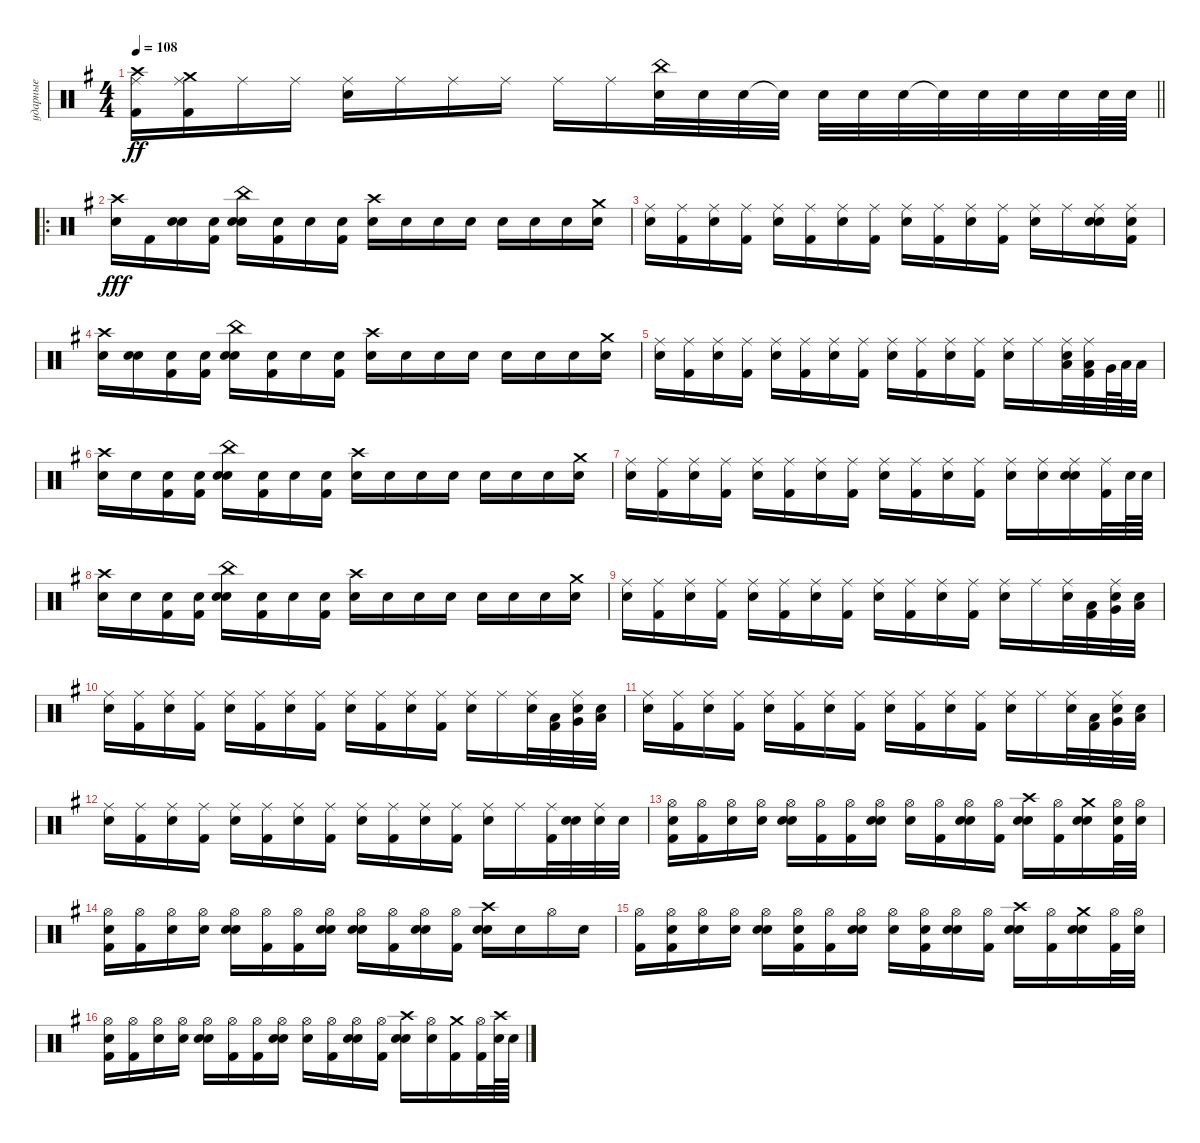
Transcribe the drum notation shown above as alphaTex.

\track ("ударные" "ударные") {instrument percussion}
\staff {score}
\articulation defaults
\ts (4 4)
\tempo 108
\clef neutral
\barLineRight lightlight
\ks eminor
("Crash high (hit)" "Ride (middle)" "Kick (hit) 2").16{dy ff} ("Crash medium (hit)" "Ride (middle)" "Kick (hit) 2").16 "Ride (middle)".16 "Ride (middle)".16 ("Ride (middle)" "Snare (hit) 2").16 "Ride (middle)".16 "Ride (middle)".16 "Ride (middle)".16 "Ride (middle)".16 "Ride (middle)".16 ("China (hit)" "Snare (hit) 2").32 "Snare (hit) 2".32 "Snare (hit) 2".32 "Snare (hit) 2"{t}.32 "Snare (hit) 2".32 "Snare (hit) 2".32 "Snare (hit) 2".32 "Snare (hit) 2"{t}.32 "Snare (hit) 2".32 "Snare (hit) 2".32 "Snare (hit) 2".32 "Snare (hit) 2".64 "Snare (hit) 2".64 |
\ro
("Crash high (hit)" "Snare (hit) 2").16{dy fff} "Kick (hit) 2".16 ("Snare (hit)" "Snare (hit)").16 ("Snare (hit)" "Kick (hit) 2").16 ("China (hit)" "Snare (hit) 2" "Snare (hit)").16 ("Snare (hit)" "Kick (hit) 2").16 "Snare (hit)".16 ("Snare (hit)" "Kick (hit) 2").16 ("Crash high (hit)" "Snare (hit) 2").16 "Snare (hit)".16 "Snare (hit) 2".16 "Snare (hit)".16 "Snare (hit) 2".16 "Snare (hit)".16 "Snare (hit) 2".16 ("Crash medium (hit)" "Snare (hit) 2").16 |
("Ride (middle)" "Snare (hit) 2").16 ("Ride (middle)" "Kick (hit) 2").16 ("Ride (middle)" "Snare (hit)").16 ("Ride (middle)" "Kick (hit) 2").16 ("Ride (middle)" "Snare (hit) 2").16 ("Ride (middle)" "Kick (hit) 2").16 ("Ride (middle)" "Snare (hit)").16 ("Ride (middle)" "Kick (hit) 2").16 ("Ride (middle)" "Snare (hit) 2").16 ("Ride (middle)" "Kick (hit) 2").16 ("Ride (middle)" "Snare (hit)").16 ("Ride (middle)" "Kick (hit) 2").16 ("Ride (middle)" "Snare (hit) 2").16 "Ride (middle)".16 ("Ride (middle)" "Snare (hit) 2" "Snare (hit)").16 ("Ride (middle)" "Snare (hit) 2" "Kick (hit) 2").16 |
("Crash high (hit)" "Snare (hit) 2").16 ("Snare (hit) 2" "Snare (hit)").16 ("Snare (hit)" "Kick (hit) 2").16 ("Snare (hit)" "Kick (hit) 2").16 ("China (hit)" "Snare (hit) 2" "Snare (hit)").16 ("Snare (hit)" "Kick (hit) 2").16 "Snare (hit)".16 ("Snare (hit)" "Kick (hit) 2").16 ("Crash high (hit)" "Snare (hit) 2").16 "Snare (hit)".16 "Snare (hit) 2".16 "Snare (hit)".16 "Snare (hit) 2".16 "Snare (hit) 2".16 "Snare (hit)".16 ("Crash medium (hit)" "Snare (hit) 2").16 |
("Ride (middle)" "Snare (hit) 2").16 ("Ride (middle)" "Kick (hit) 2").16 ("Ride (middle)" "Snare (hit)").16 ("Ride (middle)" "Kick (hit) 2").16 ("Ride (middle)" "Snare (hit) 2").16 ("Ride (middle)" "Kick (hit) 2").16 ("Ride (middle)" "Snare (hit)").16 ("Ride (middle)" "Kick (hit) 2").16 ("Ride (middle)" "Snare (hit) 2").16 ("Ride (middle)" "Kick (hit) 2").16 ("Ride (middle)" "Snare (hit)").16 ("Ride (middle)" "Kick (hit) 2").16 ("Ride (middle)" "Snare (hit) 2").16 "Ride (middle)".16 ("Low Tom (hit)" "Ride (middle)" "Snare (hit)").32 ("Low Tom (hit)" "Ride (middle)" "Kick (hit) 2").32 "Very Low Tom (hit)".64 "Low Floor Tom (hit)".64 "Low Floor Tom (hit)".32 |
("Crash high (hit)" "Snare (hit) 2").16 "Snare (hit) 2".16 ("Snare (hit)" "Kick (hit) 2").16 ("Snare (hit)" "Kick (hit) 2").16 ("China (hit)" "Snare (hit) 2" "Snare (hit)").16 ("Snare (hit)" "Kick (hit) 2").16 "Snare (hit)".16 ("Snare (hit)" "Kick (hit) 2").16 ("Crash high (hit)" "Snare (hit) 2").16 "Snare (hit)".16 "Snare (hit) 2".16 "Snare (hit)".16 "Snare (hit) 2".16 "Snare (hit) 2".16 "Snare (hit)".16 ("Crash medium (hit)" "Snare (hit) 2").16 |
("Ride (middle)" "Snare (hit) 2").16 ("Ride (middle)" "Kick (hit) 2").16 ("Ride (middle)" "Snare (hit)").16 ("Ride (middle)" "Kick (hit) 2").16 ("Ride (middle)" "Snare (hit) 2").16 ("Ride (middle)" "Kick (hit) 2").16 ("Ride (middle)" "Snare (hit)").16 ("Ride (middle)" "Kick (hit) 2").16 ("Ride (middle)" "Snare (hit) 2").16 ("Ride (middle)" "Kick (hit) 2").16 ("Ride (middle)" "Snare (hit)").16 ("Ride (middle)" "Kick (hit) 2").16 ("Ride (middle)" "Snare (hit) 2").16 ("Ride (middle)" "Snare (hit)").16 ("Ride (middle)" "Snare (hit)" "Snare (hit)").16 ("Ride (middle)" "Kick (hit) 2").32 "Snare (hit) 2".64 "Snare (hit) 2".64 |
("Crash high (hit)" "Snare (hit) 2").16 "Snare (hit) 2".16 ("Snare (hit)" "Kick (hit) 2").16 ("Snare (hit)" "Kick (hit) 2").16 ("China (hit)" "Snare (hit) 2" "Snare (hit)").16 ("Snare (hit)" "Kick (hit) 2").16 "Snare (hit)".16 ("Snare (hit)" "Kick (hit) 2").16 ("Crash high (hit)" "Snare (hit) 2").16 "Snare (hit)".16 "Snare (hit) 2".16 "Snare (hit)".16 "Snare (hit) 2".16 "Snare (hit) 2".16 "Snare (hit)".16 ("Crash medium (hit)" "Snare (hit) 2").16 |
("Ride (middle)" "Snare (hit) 2").16 ("Ride (middle)" "Kick (hit) 2").16 ("Ride (middle)" "Snare (hit)").16 ("Ride (middle)" "Kick (hit) 2").16 ("Ride (middle)" "Snare (hit) 2").16 ("Ride (middle)" "Kick (hit) 2").16 ("Ride (middle)" "Snare (hit)").16 ("Ride (middle)" "Kick (hit) 2").16 ("Ride (middle)" "Snare (hit) 2").16 ("Ride (middle)" "Kick (hit) 2").16 ("Ride (middle)" "Snare (hit)").16 ("Ride (middle)" "Kick (hit) 2").16 ("Ride (middle)" "Snare (hit) 2").16 "Ride (middle)".16 ("Ride (middle)" "Snare (hit)").32 ("Low Tom (hit)" "Kick (hit) 2").32 ("Very Low Tom (hit)" "Ride (middle)" "Snare (hit)").32 ("Low Floor Tom (hit)" "Snare (hit)").32 |
("Ride (middle)" "Snare (hit) 2").16 ("Ride (middle)" "Kick (hit) 2").16 ("Ride (middle)" "Snare (hit)").16 ("Ride (middle)" "Kick (hit) 2").16 ("Ride (middle)" "Snare (hit) 2").16 ("Ride (middle)" "Kick (hit) 2").16 ("Ride (middle)" "Snare (hit)").16 ("Ride (middle)" "Kick (hit) 2").16 ("Ride (middle)" "Snare (hit) 2").16 ("Ride (middle)" "Kick (hit) 2").16 ("Ride (middle)" "Snare (hit)").16 ("Ride (middle)" "Kick (hit) 2").16 ("Ride (middle)" "Snare (hit) 2").16 "Ride (middle)".16 ("Ride (middle)" "Snare (hit)").32 ("Low Tom (hit)" "Kick (hit) 2").32 ("Very Low Tom (hit)" "Ride (middle)" "Snare (hit)").32 ("Low Floor Tom (hit)" "Snare (hit)").32 |
("Ride (middle)" "Snare (hit) 2").16 ("Ride (middle)" "Kick (hit) 2").16 ("Ride (middle)" "Snare (hit)").16 ("Ride (middle)" "Kick (hit) 2").16 ("Ride (middle)" "Snare (hit) 2").16 ("Ride (middle)" "Kick (hit) 2").16 ("Ride (middle)" "Snare (hit)").16 ("Ride (middle)" "Kick (hit) 2").16 ("Ride (middle)" "Snare (hit) 2").16 ("Ride (middle)" "Kick (hit) 2").16 ("Ride (middle)" "Snare (hit)").16 ("Ride (middle)" "Kick (hit) 2").16 ("Ride (middle)" "Snare (hit) 2").16 "Ride (middle)".16 ("Ride (middle)" "Snare (hit)").32 ("Low Tom (hit)" "Kick (hit) 2").32 ("Very Low Tom (hit)" "Ride (middle)" "Snare (hit)").32 ("Low Floor Tom (hit)" "Snare (hit)").32 |
("Ride (middle)" "Snare (hit) 2").16 ("Ride (middle)" "Kick (hit) 2").16 ("Ride (middle)" "Snare (hit)").16 ("Ride (middle)" "Kick (hit) 2").16 ("Ride (middle)" "Snare (hit) 2").16 ("Ride (middle)" "Kick (hit) 2").16 ("Ride (middle)" "Snare (hit)").16 ("Ride (middle)" "Kick (hit) 2").16 ("Ride (middle)" "Snare (hit) 2").16 ("Ride (middle)" "Kick (hit) 2").16 ("Ride (middle)" "Snare (hit)").16 ("Ride (middle)" "Kick (hit) 2").16 ("Ride (middle)" "Snare (hit) 2").16 "Ride (middle)".16 ("Ride (middle)" "Kick (hit) 2").32 ("Snare (hit) 2" "Snare (hit)").32 ("Ride (middle)" "Snare (hit) 2").32 "Snare (hit) 2".32 |
("Hi-Hat (open)" "Snare (hit) 2" "Kick (hit) 2").16 ("Hi-Hat (open)" "Kick (hit) 2").16 ("Hi-Hat (open)" "Snare (hit)").16 ("Hi-Hat (open)" "Snare (hit)").16 ("Hi-Hat (open)" "Snare (hit) 2" "Snare (hit)").16 ("Hi-Hat (open)" "Kick (hit) 2").16 ("Hi-Hat (open)" "Kick (hit) 2").16 ("Hi-Hat (open)" "Snare (hit) 2" "Snare (hit)").16 ("Hi-Hat (open)" "Snare (hit)").16 ("Hi-Hat (open)" "Kick (hit) 2").16 ("Hi-Hat (open)" "Snare (hit) 2" "Snare (hit)").16 ("Hi-Hat (open)" "Kick (hit) 2").16 ("Crash high (hit)" "Snare (hit) 2" "Snare (hit)").16 ("Hi-Hat (open)" "Kick (hit) 2").16 ("Crash medium (hit)" "Snare (hit) 2" "Snare (hit)").16 ("Hi-Hat (open)" "Snare (hit) 2" "Kick (hit) 2").32 ("Hi-Hat (open)" "Snare (hit) 2").32 |
("Hi-Hat (open)" "Snare (hit) 2" "Kick (hit) 2").16 ("Hi-Hat (open)" "Kick (hit) 2").16 ("Hi-Hat (open)" "Snare (hit)").16 ("Hi-Hat (open)" "Snare (hit)").16 ("Hi-Hat (open)" "Snare (hit) 2" "Snare (hit)").16 ("Hi-Hat (open)" "Kick (hit) 2").16 ("Hi-Hat (open)" "Kick (hit) 2").16 ("Hi-Hat (open)" "Snare (hit) 2" "Snare (hit)").16 ("Hi-Hat (open)" "Snare (hit) 2" "Snare (hit)").16 ("Hi-Hat (open)" "Kick (hit) 2").16 ("Hi-Hat (open)" "Snare (hit) 2" "Snare (hit)").16 ("Hi-Hat (open)" "Kick (hit) 2").16 ("Crash high (hit)" "Snare (hit) 2" "Snare (hit)").16 "Snare (hit)".16 "Hi-Hat (open)".16 "Snare (hit)".16 |
("Hi-Hat (open)" "Kick (hit) 2").16 ("Hi-Hat (open)" "Snare (hit) 2" "Kick (hit) 2").16 ("Hi-Hat (open)" "Snare (hit)").16 ("Hi-Hat (open)" "Snare (hit)").16 ("Hi-Hat (open)" "Snare (hit) 2" "Snare (hit)").16 ("Hi-Hat (open)" "Snare (hit) 2" "Kick (hit) 2").16 ("Hi-Hat (open)" "Kick (hit) 2").16 ("Hi-Hat (open)" "Snare (hit) 2" "Snare (hit)").16 ("Hi-Hat (open)" "Snare (hit)").16 ("Hi-Hat (open)" "Snare (hit) 2" "Kick (hit) 2").16 ("Hi-Hat (open)" "Snare (hit) 2" "Snare (hit)").16 ("Hi-Hat (open)" "Kick (hit) 2").16 ("Crash high (hit)" "Snare (hit) 2" "Snare (hit)").16 ("Hi-Hat (open)" "Kick (hit) 2").16 ("Crash medium (hit)" "Snare (hit) 2" "Snare (hit)").16 ("Hi-Hat (open)" "Kick (hit) 2").32 ("Hi-Hat (open)" "Snare (hit) 2").32 |
("Hi-Hat (open)" "Snare (hit) 2" "Kick (hit) 2").16 ("Hi-Hat (open)" "Kick (hit) 2").16 ("Hi-Hat (open)" "Snare (hit)").16 ("Hi-Hat (open)" "Snare (hit)").16 ("Hi-Hat (open)" "Snare (hit) 2" "Snare (hit)").16 ("Hi-Hat (open)" "Kick (hit) 2").16 ("Hi-Hat (open)" "Kick (hit) 2").16 ("Hi-Hat (open)" "Snare (hit) 2" "Snare (hit)").16 ("Hi-Hat (open)" "Snare (hit)").16 ("Hi-Hat (open)" "Kick (hit) 2").16 ("Hi-Hat (open)" "Snare (hit) 2" "Snare (hit)").16 ("Hi-Hat (open)" "Kick (hit) 2").16 ("Crash high (hit)" "Snare (hit) 2" "Snare (hit)").16 ("Hi-Hat (open)" "Snare (hit)").16 ("Crash medium (hit)" "Kick (hit) 2").16 ("Hi-Hat (open)" "Kick (hit) 2").32 ("Crash high (hit)" "Snare (hit) 2").64 "Snare (hit) 2".64
